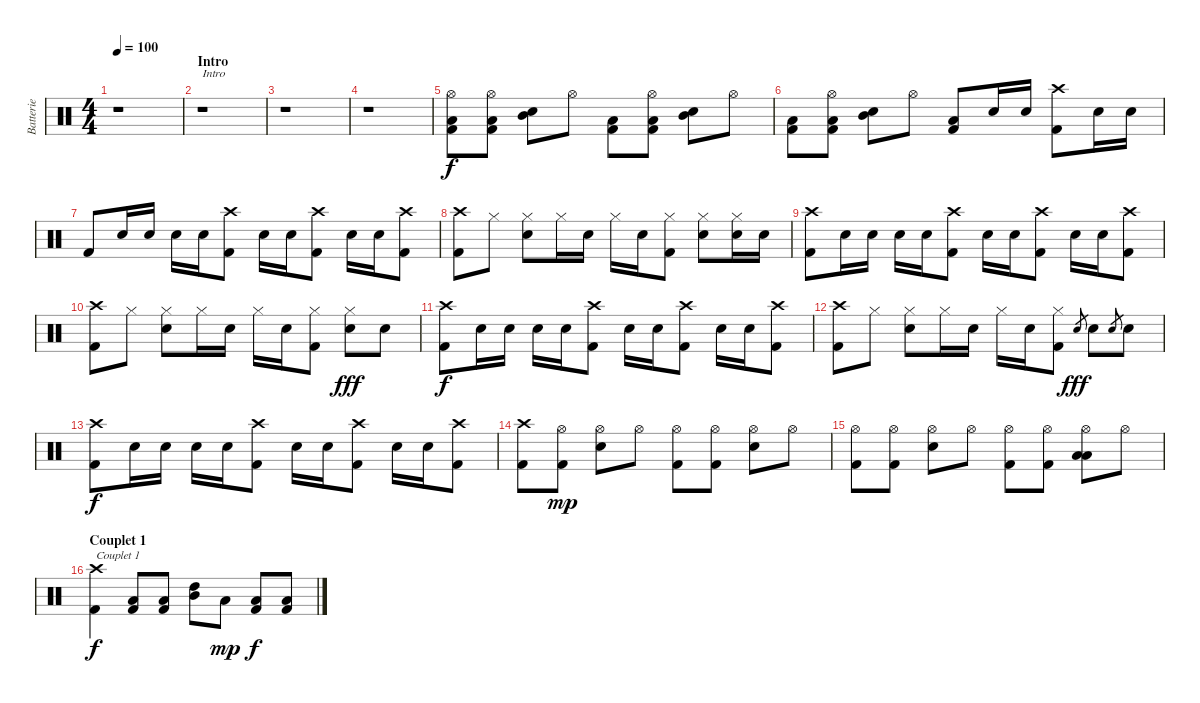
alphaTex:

\track ("Batterie" "Batterie") {instrument percussion}
\staff {score}
\articulation defaults
\ts (4 4)
\tempo 100
\clef neutral
\ks c
r.1{dy f} |
\section ("" "Intro")
r.1{txt "Intro"} |
r.1 |
r.1 |
("Hi-Hat (open)" "Low Floor Tom (hit)" "Kick (hit) 2").8 ("Hi-Hat (open)" "Low Floor Tom (hit)" "Kick (hit) 2").8 ("Mid Tom (hit)" "Snare (hit) 2").8 "Hi-Hat (open)".8 ("Low Floor Tom (hit)" "Kick (hit) 2").8 ("Hi-Hat (open)" "Low Floor Tom (hit)" "Kick (hit) 2").8 ("Mid Tom (hit)" "Snare (hit) 2").8 "Hi-Hat (open)".8 |
("Low Floor Tom (hit)" "Kick (hit) 2").8 ("Hi-Hat (open)" "Low Floor Tom (hit)" "Kick (hit) 2").8 ("Mid Tom (hit)" "Snare (hit) 2").8 "Hi-Hat (open)".8 ("Low Floor Tom (hit)" "Kick (hit) 2").8 "Electric Snare (hit)".16 "Electric Snare (hit)".16 ("Crash high (hit)" "Kick (hit) 2").8 "Electric Snare (hit)".16 "Electric Snare (hit)".16 |
"Kick (hit) 2".8 "Electric Snare (hit)".16 "Electric Snare (hit)".16 "Electric Snare (hit)".16 "Electric Snare (hit)".16 ("Crash high (hit)" "Kick (hit) 2").8 "Electric Snare (hit)".16 "Electric Snare (hit)".16 ("Crash high (hit)" "Kick (hit) 2").8 "Electric Snare (hit)".16 "Electric Snare (hit)".16 ("Crash high (hit)" "Kick (hit) 2").8 |
("Crash high (hit)" "Kick (hit) 2").8 "Hi-Hat (closed)".8 ("Hi-Hat (closed)" "Electric Snare (hit)").8 "Hi-Hat (closed)".16 "Electric Snare (hit)".16 "Hi-Hat (closed)".16 "Electric Snare (hit)".16 ("Hi-Hat (closed)" "Kick (hit) 2").8 ("Hi-Hat (closed)" "Electric Snare (hit)").8 ("Hi-Hat (closed)" "Electric Snare (hit)").16 "Electric Snare (hit)".16 |
("Crash high (hit)" "Kick (hit) 2").8 "Electric Snare (hit)".16 "Electric Snare (hit)".16 "Electric Snare (hit)".16 "Electric Snare (hit)".16 ("Crash high (hit)" "Kick (hit) 2").8 "Electric Snare (hit)".16 "Electric Snare (hit)".16 ("Crash high (hit)" "Kick (hit) 2").8 "Electric Snare (hit)".16 "Electric Snare (hit)".16 ("Crash high (hit)" "Kick (hit) 2").8 |
("Crash high (hit)" "Kick (hit) 2").8 "Hi-Hat (closed)".8 ("Hi-Hat (closed)" "Electric Snare (hit)").8 "Hi-Hat (closed)".16 "Electric Snare (hit)".16 "Hi-Hat (closed)".16 "Electric Snare (hit)".16 ("Hi-Hat (closed)" "Kick (hit) 2").8 ("Hi-Hat (closed)" "Electric Snare (hit)").8{dy fff} "Electric Snare (hit)".8 |
("Crash high (hit)" "Kick (hit) 2").8{dy f} "Electric Snare (hit)".16 "Electric Snare (hit)".16 "Electric Snare (hit)".16 "Electric Snare (hit)".16 ("Crash high (hit)" "Kick (hit) 2").8 "Electric Snare (hit)".16 "Electric Snare (hit)".16 ("Crash high (hit)" "Kick (hit) 2").8 "Electric Snare (hit)".16 "Electric Snare (hit)".16 ("Crash high (hit)" "Kick (hit) 2").8 |
("Crash high (hit)" "Kick (hit) 2").8 "Hi-Hat (closed)".8 ("Hi-Hat (closed)" "Electric Snare (hit)").8 "Hi-Hat (closed)".16 "Electric Snare (hit)".16 "Hi-Hat (closed)".16 "Electric Snare (hit)".16 ("Hi-Hat (closed)" "Kick (hit) 2").8 "Electric Snare (hit)".8{gr dy fff} "Electric Snare (hit)".8 "Electric Snare (hit)".8{gr} "Electric Snare (hit)".8 |
("Crash high (hit)" "Kick (hit) 2").8{dy f} "Electric Snare (hit)".16 "Electric Snare (hit)".16 "Electric Snare (hit)".16 "Electric Snare (hit)".16 ("Crash high (hit)" "Kick (hit) 2").8 "Electric Snare (hit)".16 "Electric Snare (hit)".16 ("Crash high (hit)" "Kick (hit) 2").8 "Electric Snare (hit)".16 "Electric Snare (hit)".16 ("Crash high (hit)" "Kick (hit) 2").8 |
("Crash high (hit)" "Kick (hit) 2").8 ("Hi-Hat (open)" "Kick (hit) 2").8{dy mp} ("Hi-Hat (open)" "Electric Snare (hit)").8 "Hi-Hat (open)".8 ("Hi-Hat (open)" "Kick (hit) 2").8 ("Hi-Hat (open)" "Kick (hit) 2").8 ("Hi-Hat (open)" "Electric Snare (hit)").8 "Hi-Hat (open)".8 |
("Hi-Hat (open)" "Kick (hit) 2").8 ("Hi-Hat (open)" "Kick (hit) 2").8 ("Hi-Hat (open)" "Electric Snare (hit)").8 "Hi-Hat (open)".8 ("Hi-Hat (open)" "Kick (hit) 2").8 ("Hi-Hat (open)" "Kick (hit) 2").8 ("Hi-Hat (open)" "Low Floor Tom (hit)" "Low Tom (hit)").8 "Hi-Hat (open)".8 |
\section ("" "Couplet 1")
("Crash high (hit)" "Kick (hit) 2").4{txt "Couplet 1" dy f} ("Low Floor Tom (hit)" "Kick (hit) 2").8 ("Low Floor Tom (hit)" "Kick (hit) 2").8 ("High Tom (hit)" "Mid Tom (hit)").8 "Low Tom (hit)".8{dy mp} ("Low Floor Tom (hit)" "Kick (hit) 2").8{dy f} ("Low Floor Tom (hit)" "Kick (hit) 2").8
